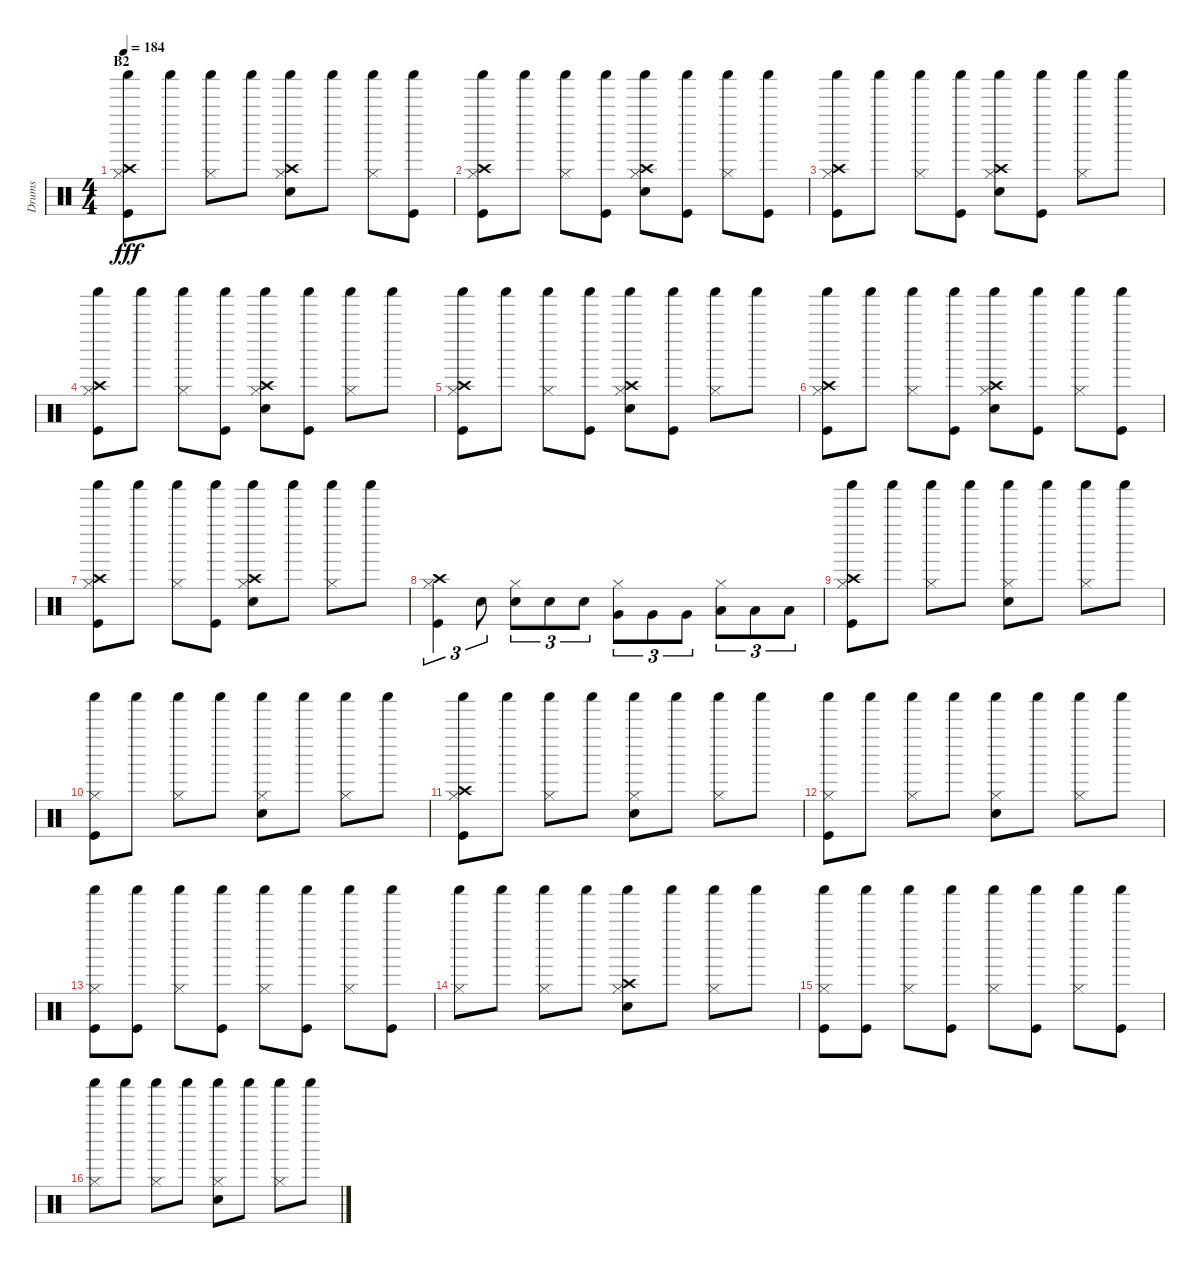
\track ("Drums" "Drums") {instrument percussion}
\staff {score}
\articulation defaults
\ts (4 4)
\section ("" "B2")
\tempo 184
\clef neutral
\ks c
("Hi-Hat (closed)" "Crash high (hit)" "Shaker (hit)" "Kick (hit)").8{dy fff} "Shaker (hit)".8 ("Hi-Hat (closed)" "Shaker (hit)").8 "Shaker (hit)".8 ("Hi-Hat (closed)" "Crash high (hit)" "Shaker (hit)" "Snare (hit) 2").8 "Shaker (hit)".8 ("Hi-Hat (closed)" "Shaker (hit)").8 ("Shaker (hit)" "Kick (hit)").8 |
("Hi-Hat (closed)" "Crash high (hit)" "Shaker (hit)" "Kick (hit)").8 "Shaker (hit)".8 ("Hi-Hat (closed)" "Shaker (hit)").8 ("Shaker (hit)" "Kick (hit)").8 ("Hi-Hat (closed)" "Crash high (hit)" "Shaker (hit)" "Snare (hit) 2").8 ("Shaker (hit)" "Kick (hit)").8 ("Hi-Hat (closed)" "Shaker (hit)").8 ("Shaker (hit)" "Kick (hit)").8 |
("Hi-Hat (closed)" "Crash high (hit)" "Shaker (hit)" "Kick (hit)").8 "Shaker (hit)".8 ("Hi-Hat (closed)" "Shaker (hit)").8 ("Shaker (hit)" "Kick (hit)").8 ("Hi-Hat (closed)" "Crash high (hit)" "Shaker (hit)" "Snare (hit) 2").8 ("Shaker (hit)" "Kick (hit)").8 ("Hi-Hat (closed)" "Shaker (hit)").8 "Shaker (hit)".8 |
("Hi-Hat (closed)" "Crash high (hit)" "Shaker (hit)" "Kick (hit)").8 "Shaker (hit)".8 ("Hi-Hat (closed)" "Shaker (hit)").8 ("Shaker (hit)" "Kick (hit)").8 ("Hi-Hat (closed)" "Crash high (hit)" "Shaker (hit)" "Snare (hit) 2").8 ("Shaker (hit)" "Kick (hit)").8 ("Hi-Hat (closed)" "Shaker (hit)").8 "Shaker (hit)".8 |
("Hi-Hat (closed)" "Crash high (hit)" "Shaker (hit)" "Kick (hit)").8 "Shaker (hit)".8 ("Hi-Hat (closed)" "Shaker (hit)").8 ("Shaker (hit)" "Kick (hit)").8 ("Hi-Hat (closed)" "Crash high (hit)" "Shaker (hit)" "Snare (hit) 2").8 ("Shaker (hit)" "Kick (hit)").8 ("Hi-Hat (closed)" "Shaker (hit)").8 "Shaker (hit)".8 |
("Hi-Hat (closed)" "Crash high (hit)" "Shaker (hit)" "Kick (hit)").8 "Shaker (hit)".8 ("Hi-Hat (closed)" "Shaker (hit)").8 ("Shaker (hit)" "Kick (hit)").8 ("Hi-Hat (closed)" "Crash high (hit)" "Shaker (hit)" "Snare (hit) 2").8 ("Shaker (hit)" "Kick (hit)").8 ("Hi-Hat (closed)" "Shaker (hit)").8 ("Shaker (hit)" "Kick (hit)").8 |
("Hi-Hat (closed)" "Crash high (hit)" "Shaker (hit)" "Kick (hit)").8 "Shaker (hit)".8 ("Hi-Hat (closed)" "Shaker (hit)").8 ("Shaker (hit)" "Kick (hit)").8 ("Hi-Hat (closed)" "Crash high (hit)" "Shaker (hit)" "Snare (hit) 2").8 "Shaker (hit)".8 ("Hi-Hat (closed)" "Shaker (hit)").8 "Shaker (hit)".8 |
("Hi-Hat (closed)" "Crash high (hit)" "Kick (hit)").4{tu (3 2)} "Snare (hit) 2".8{tu (3 2)} ("Hi-Hat (closed)" "Snare (hit) 2").8{tu (3 2)} "Snare (hit) 2".8{tu (3 2)} "Snare (hit) 2".8{tu (3 2)} ("Hi-Hat (closed)" "Very Low Tom (hit)").8{tu (3 2)} "Very Low Tom (hit)".8{tu (3 2)} "Very Low Tom (hit)".8{tu (3 2)} ("Hi-Hat (closed)" "Low Floor Tom (hit)").8{tu (3 2)} "Low Floor Tom (hit)".8{tu (3 2)} "Low Floor Tom (hit)".8{tu (3 2)} |
("Hi-Hat (closed)" "Crash high (hit)" "Shaker (hit)" "Kick (hit)").8 "Shaker (hit)".8 ("Hi-Hat (closed)" "Shaker (hit)").8 "Shaker (hit)".8 ("Hi-Hat (closed)" "Shaker (hit)" "Snare (hit) 2").8 "Shaker (hit)".8 ("Hi-Hat (closed)" "Shaker (hit)").8 "Shaker (hit)".8 |
("Hi-Hat (closed)" "Shaker (hit)" "Kick (hit)").8 "Shaker (hit)".8 ("Hi-Hat (closed)" "Shaker (hit)").8 "Shaker (hit)".8 ("Hi-Hat (closed)" "Shaker (hit)" "Snare (hit) 2").8 "Shaker (hit)".8 ("Hi-Hat (closed)" "Shaker (hit)").8 "Shaker (hit)".8 |
("Hi-Hat (closed)" "Crash high (hit)" "Shaker (hit)" "Kick (hit)").8 "Shaker (hit)".8 ("Hi-Hat (closed)" "Shaker (hit)").8 "Shaker (hit)".8 ("Hi-Hat (closed)" "Shaker (hit)" "Snare (hit) 2").8 "Shaker (hit)".8 ("Hi-Hat (closed)" "Shaker (hit)").8 "Shaker (hit)".8 |
("Hi-Hat (closed)" "Shaker (hit)" "Kick (hit)").8 "Shaker (hit)".8 ("Hi-Hat (closed)" "Shaker (hit)").8 "Shaker (hit)".8 ("Hi-Hat (closed)" "Shaker (hit)" "Snare (hit) 2").8 "Shaker (hit)".8 ("Hi-Hat (closed)" "Shaker (hit)").8 "Shaker (hit)".8 |
("Hi-Hat (closed)" "Shaker (hit)" "Kick (hit)").8 ("Shaker (hit)" "Kick (hit)").8 ("Hi-Hat (closed)" "Shaker (hit)").8 ("Shaker (hit)" "Kick (hit)").8 ("Hi-Hat (closed)" "Shaker (hit)").8 ("Shaker (hit)" "Kick (hit)").8 ("Hi-Hat (closed)" "Shaker (hit)").8 ("Shaker (hit)" "Kick (hit)").8 |
("Hi-Hat (closed)" "Shaker (hit)").8 "Shaker (hit)".8 ("Hi-Hat (closed)" "Shaker (hit)").8 "Shaker (hit)".8 ("Hi-Hat (closed)" "Crash high (hit)" "Shaker (hit)" "Snare (hit) 2").8 "Shaker (hit)".8 ("Hi-Hat (closed)" "Shaker (hit)").8 "Shaker (hit)".8 |
("Hi-Hat (closed)" "Shaker (hit)" "Kick (hit)").8 ("Shaker (hit)" "Kick (hit)").8 ("Hi-Hat (closed)" "Shaker (hit)").8 ("Shaker (hit)" "Kick (hit)").8 ("Hi-Hat (closed)" "Shaker (hit)").8 ("Shaker (hit)" "Kick (hit)").8 ("Hi-Hat (closed)" "Shaker (hit)").8 ("Shaker (hit)" "Kick (hit)").8 |
("Hi-Hat (closed)" "Shaker (hit)").8 "Shaker (hit)".8 ("Hi-Hat (closed)" "Shaker (hit)").8 "Shaker (hit)".8 ("Hi-Hat (closed)" "Shaker (hit)" "Snare (hit) 2").8 "Shaker (hit)".8 ("Hi-Hat (closed)" "Shaker (hit)").8 "Shaker (hit)".8
